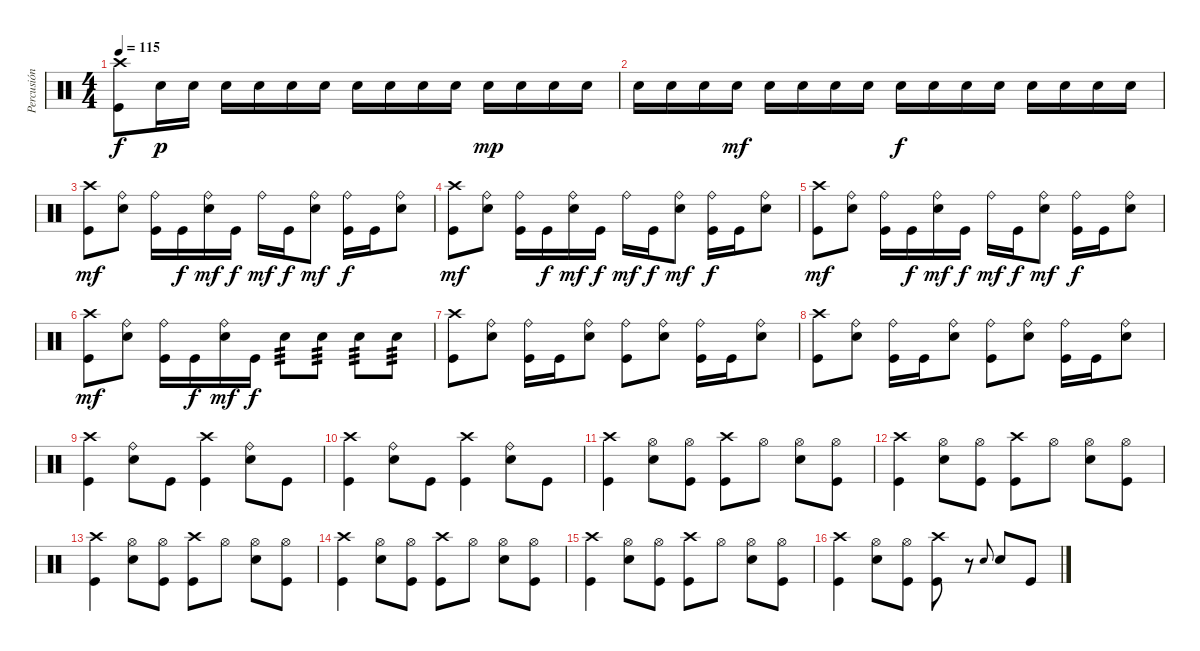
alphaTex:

\track ("Percusión" "Percusión") {instrument percussion}
\staff {score}
\articulation defaults
\ts (4 4)
\tempo 115
\clef neutral
\ks c
("Crash high (hit)" "Kick (hit)").8{dy f} "Electric Snare (hit)".16{dy p} "Electric Snare (hit)".16 "Electric Snare (hit)".16 "Electric Snare (hit)".16 "Electric Snare (hit)".16 "Electric Snare (hit)".16 "Electric Snare (hit)".16 "Electric Snare (hit)".16 "Electric Snare (hit)".16 "Electric Snare (hit)".16 "Electric Snare (hit)".16{dy mp} "Electric Snare (hit)".16 "Electric Snare (hit)".16 "Electric Snare (hit)".16 |
"Electric Snare (hit)".16 "Electric Snare (hit)".16 "Electric Snare (hit)".16 "Electric Snare (hit)".16{dy mf} "Electric Snare (hit)".16 "Electric Snare (hit)".16 "Electric Snare (hit)".16 "Electric Snare (hit)".16 "Electric Snare (hit)".16{dy f} "Electric Snare (hit)".16 "Electric Snare (hit)".16 "Electric Snare (hit)".16 "Electric Snare (hit)".16 "Electric Snare (hit)".16 "Electric Snare (hit)".16 "Electric Snare (hit)".16 |
("Crash high (hit)" "Kick (hit)").8{dy mf} ("Electric Snare (hit)" "Ride (bell)").8 ("Ride (bell)" "Kick (hit)").16 "Kick (hit)".16{dy f} ("Electric Snare (hit)" "Ride (bell)").16{dy mf} "Kick (hit)".16{dy f} "Ride (bell)".16{dy mf} "Kick (hit)".16{dy f} ("Electric Snare (hit)" "Ride (bell)").8{dy mf} ("Ride (bell)" "Kick (hit)").16{dy f} "Kick (hit)".16 ("Electric Snare (hit)" "Ride (bell)").8 |
("Crash high (hit)" "Kick (hit)").8{dy mf} ("Electric Snare (hit)" "Ride (bell)").8 ("Ride (bell)" "Kick (hit)").16 "Kick (hit)".16{dy f} ("Electric Snare (hit)" "Ride (bell)").16{dy mf} "Kick (hit)".16{dy f} "Ride (bell)".16{dy mf} "Kick (hit)".16{dy f} ("Electric Snare (hit)" "Ride (bell)").8{dy mf} ("Ride (bell)" "Kick (hit)").16{dy f} "Kick (hit)".16 ("Electric Snare (hit)" "Ride (bell)").8 |
("Crash high (hit)" "Kick (hit)").8{dy mf} ("Electric Snare (hit)" "Ride (bell)").8 ("Ride (bell)" "Kick (hit)").16 "Kick (hit)".16{dy f} ("Electric Snare (hit)" "Ride (bell)").16{dy mf} "Kick (hit)".16{dy f} "Ride (bell)".16{dy mf} "Kick (hit)".16{dy f} ("Electric Snare (hit)" "Ride (bell)").8{dy mf} ("Ride (bell)" "Kick (hit)").16{dy f} "Kick (hit)".16 ("Electric Snare (hit)" "Ride (bell)").8 |
("Crash high (hit)" "Kick (hit)").8{dy mf} ("Electric Snare (hit)" "Ride (bell)").8 ("Ride (bell)" "Kick (hit)").16 "Kick (hit)".16{dy f} ("Electric Snare (hit)" "Ride (bell)").16{dy mf} "Kick (hit)".16{dy f} "Electric Snare (hit)".8{tp 3} "Electric Snare (hit)".8{tp 3} "Electric Snare (hit)".8{tp 3} "Electric Snare (hit)".8{tp 3} |
("Crash high (hit)" "Kick (hit)").8 ("Electric Snare (hit)" "Ride (bell)").8 ("Ride (bell)" "Kick (hit)").16 "Kick (hit)".16 ("Electric Snare (hit)" "Ride (bell)").8 ("Ride (bell)" "Kick (hit)").8 ("Electric Snare (hit)" "Ride (bell)").8 ("Ride (bell)" "Kick (hit)").16 "Kick (hit)".16 ("Electric Snare (hit)" "Ride (bell)").8 |
("Crash high (hit)" "Kick (hit)").8 ("Electric Snare (hit)" "Ride (bell)").8 ("Ride (bell)" "Kick (hit)").16 "Kick (hit)".16 ("Electric Snare (hit)" "Ride (bell)").8 ("Ride (bell)" "Kick (hit)").8 ("Electric Snare (hit)" "Ride (bell)").8 ("Ride (bell)" "Kick (hit)").16 "Kick (hit)".16 ("Electric Snare (hit)" "Ride (bell)").8 |
("Crash high (hit)" "Kick (hit)").4 ("Electric Snare (hit)" "Ride (bell)").8 "Kick (hit)".8 ("Crash high (hit)" "Kick (hit)").4 ("Electric Snare (hit)" "Ride (bell)").8 "Kick (hit)".8 |
("Crash high (hit)" "Kick (hit)").4 ("Electric Snare (hit)" "Ride (bell)").8 "Kick (hit)".8 ("Crash high (hit)" "Kick (hit)").4 ("Electric Snare (hit)" "Ride (bell)").8 "Kick (hit)".8 |
("Crash high (hit)" "Kick (hit)").4 ("Electric Snare (hit)" "Hi-Hat (open)").8 ("Hi-Hat (open)" "Kick (hit)").8 ("Crash high (hit)" "Kick (hit)").8 "Hi-Hat (open)".8 ("Electric Snare (hit)" "Hi-Hat (open)").8 ("Hi-Hat (open)" "Kick (hit)").8 |
("Crash high (hit)" "Kick (hit)").4 ("Electric Snare (hit)" "Hi-Hat (open)").8 ("Hi-Hat (open)" "Kick (hit)").8 ("Crash high (hit)" "Kick (hit)").8 "Hi-Hat (open)".8 ("Electric Snare (hit)" "Hi-Hat (open)").8 ("Hi-Hat (open)" "Kick (hit)").8 |
("Crash high (hit)" "Kick (hit)").4 ("Electric Snare (hit)" "Hi-Hat (open)").8 ("Hi-Hat (open)" "Kick (hit)").8 ("Crash high (hit)" "Kick (hit)").8 "Hi-Hat (open)".8 ("Electric Snare (hit)" "Hi-Hat (open)").8 ("Hi-Hat (open)" "Kick (hit)").8 |
("Crash high (hit)" "Kick (hit)").4 ("Electric Snare (hit)" "Hi-Hat (open)").8 ("Hi-Hat (open)" "Kick (hit)").8 ("Crash high (hit)" "Kick (hit)").8 "Hi-Hat (open)".8 ("Electric Snare (hit)" "Hi-Hat (open)").8 ("Hi-Hat (open)" "Kick (hit)").8 |
("Crash high (hit)" "Kick (hit)").4 ("Electric Snare (hit)" "Hi-Hat (open)").8 ("Hi-Hat (open)" "Kick (hit)").8 ("Crash high (hit)" "Kick (hit)").8 "Hi-Hat (open)".8 ("Electric Snare (hit)" "Hi-Hat (open)").8 ("Hi-Hat (open)" "Kick (hit)").8 |
("Crash high (hit)" "Kick (hit)").4 ("Electric Snare (hit)" "Hi-Hat (open)").8 ("Hi-Hat (open)" "Kick (hit)").8 ("Crash high (hit)" "Kick (hit)").8 r.8 "Electric Snare (hit)".8{gr onbeat} "Electric Snare (hit)".8 "Kick (hit)".8
